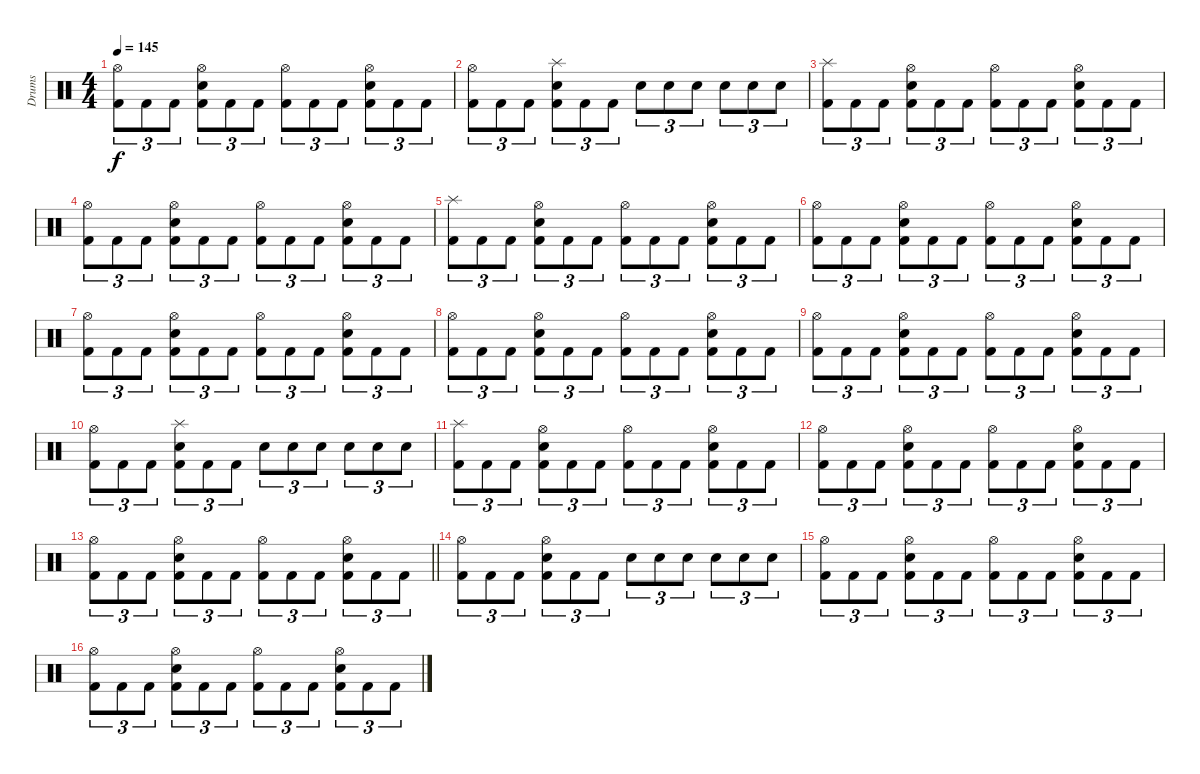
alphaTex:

\track ("Drums" "Drums") {instrument percussion}
\staff {score}
\articulation defaults
\ts (4 4)
\tempo 145
\clef neutral
\ks c
("Hi-Hat (open)" "Kick (hit) 2").8{tu (3 2) dy f} "Kick (hit) 2".8{tu (3 2)} "Kick (hit) 2".8{tu (3 2)} ("Hi-Hat (open)" "Electric Snare (hit)" "Kick (hit) 2").8{tu (3 2)} "Kick (hit) 2".8{tu (3 2)} "Kick (hit) 2".8{tu (3 2)} ("Hi-Hat (open)" "Kick (hit) 2").8{tu (3 2)} "Kick (hit) 2".8{tu (3 2)} "Kick (hit) 2".8{tu (3 2)} ("Hi-Hat (open)" "Electric Snare (hit)" "Kick (hit) 2").8{tu (3 2)} "Kick (hit) 2".8{tu (3 2)} "Kick (hit) 2".8{tu (3 2)} |
("Hi-Hat (open)" "Kick (hit) 2").8{tu (3 2)} "Kick (hit) 2".8{tu (3 2)} "Kick (hit) 2".8{tu (3 2)} ("Splash (hit)" "Electric Snare (hit)" "Kick (hit) 2").8{tu (3 2)} "Kick (hit) 2".8{tu (3 2)} "Kick (hit) 2".8{tu (3 2)} "Electric Snare (hit)".8{tu (3 2)} "Electric Snare (hit)".8{tu (3 2)} "Electric Snare (hit)".8{tu (3 2)} "Electric Snare (hit)".8{tu (3 2)} "Electric Snare (hit)".8{tu (3 2)} "Electric Snare (hit)".8{tu (3 2)} |
("Splash (hit)" "Kick (hit) 2").8{tu (3 2)} "Kick (hit) 2".8{tu (3 2)} "Kick (hit) 2".8{tu (3 2)} ("Hi-Hat (open)" "Electric Snare (hit)" "Kick (hit) 2").8{tu (3 2)} "Kick (hit) 2".8{tu (3 2)} "Kick (hit) 2".8{tu (3 2)} ("Hi-Hat (open)" "Kick (hit) 2").8{tu (3 2)} "Kick (hit) 2".8{tu (3 2)} "Kick (hit) 2".8{tu (3 2)} ("Hi-Hat (open)" "Electric Snare (hit)" "Kick (hit) 2").8{tu (3 2)} "Kick (hit) 2".8{tu (3 2)} "Kick (hit) 2".8{tu (3 2)} |
("Hi-Hat (open)" "Kick (hit) 2").8{tu (3 2)} "Kick (hit) 2".8{tu (3 2)} "Kick (hit) 2".8{tu (3 2)} ("Hi-Hat (open)" "Electric Snare (hit)" "Kick (hit) 2").8{tu (3 2)} "Kick (hit) 2".8{tu (3 2)} "Kick (hit) 2".8{tu (3 2)} ("Hi-Hat (open)" "Kick (hit) 2").8{tu (3 2)} "Kick (hit) 2".8{tu (3 2)} "Kick (hit) 2".8{tu (3 2)} ("Hi-Hat (open)" "Electric Snare (hit)" "Kick (hit) 2").8{tu (3 2)} "Kick (hit) 2".8{tu (3 2)} "Kick (hit) 2".8{tu (3 2)} |
("Splash (hit)" "Kick (hit) 2").8{tu (3 2)} "Kick (hit) 2".8{tu (3 2)} "Kick (hit) 2".8{tu (3 2)} ("Hi-Hat (open)" "Electric Snare (hit)" "Kick (hit) 2").8{tu (3 2)} "Kick (hit) 2".8{tu (3 2)} "Kick (hit) 2".8{tu (3 2)} ("Hi-Hat (open)" "Kick (hit) 2").8{tu (3 2)} "Kick (hit) 2".8{tu (3 2)} "Kick (hit) 2".8{tu (3 2)} ("Hi-Hat (open)" "Electric Snare (hit)" "Kick (hit) 2").8{tu (3 2)} "Kick (hit) 2".8{tu (3 2)} "Kick (hit) 2".8{tu (3 2)} |
("Hi-Hat (open)" "Kick (hit) 2").8{tu (3 2)} "Kick (hit) 2".8{tu (3 2)} "Kick (hit) 2".8{tu (3 2)} ("Hi-Hat (open)" "Electric Snare (hit)" "Kick (hit) 2").8{tu (3 2)} "Kick (hit) 2".8{tu (3 2)} "Kick (hit) 2".8{tu (3 2)} ("Hi-Hat (open)" "Kick (hit) 2").8{tu (3 2)} "Kick (hit) 2".8{tu (3 2)} "Kick (hit) 2".8{tu (3 2)} ("Hi-Hat (open)" "Electric Snare (hit)" "Kick (hit) 2").8{tu (3 2)} "Kick (hit) 2".8{tu (3 2)} "Kick (hit) 2".8{tu (3 2)} |
("Hi-Hat (open)" "Kick (hit) 2").8{tu (3 2)} "Kick (hit) 2".8{tu (3 2)} "Kick (hit) 2".8{tu (3 2)} ("Hi-Hat (open)" "Electric Snare (hit)" "Kick (hit) 2").8{tu (3 2)} "Kick (hit) 2".8{tu (3 2)} "Kick (hit) 2".8{tu (3 2)} ("Hi-Hat (open)" "Kick (hit) 2").8{tu (3 2)} "Kick (hit) 2".8{tu (3 2)} "Kick (hit) 2".8{tu (3 2)} ("Hi-Hat (open)" "Electric Snare (hit)" "Kick (hit) 2").8{tu (3 2)} "Kick (hit) 2".8{tu (3 2)} "Kick (hit) 2".8{tu (3 2)} |
("Hi-Hat (open)" "Kick (hit) 2").8{tu (3 2)} "Kick (hit) 2".8{tu (3 2)} "Kick (hit) 2".8{tu (3 2)} ("Hi-Hat (open)" "Electric Snare (hit)" "Kick (hit) 2").8{tu (3 2)} "Kick (hit) 2".8{tu (3 2)} "Kick (hit) 2".8{tu (3 2)} ("Hi-Hat (open)" "Kick (hit) 2").8{tu (3 2)} "Kick (hit) 2".8{tu (3 2)} "Kick (hit) 2".8{tu (3 2)} ("Hi-Hat (open)" "Electric Snare (hit)" "Kick (hit) 2").8{tu (3 2)} "Kick (hit) 2".8{tu (3 2)} "Kick (hit) 2".8{tu (3 2)} |
("Hi-Hat (open)" "Kick (hit) 2").8{tu (3 2)} "Kick (hit) 2".8{tu (3 2)} "Kick (hit) 2".8{tu (3 2)} ("Hi-Hat (open)" "Electric Snare (hit)" "Kick (hit) 2").8{tu (3 2)} "Kick (hit) 2".8{tu (3 2)} "Kick (hit) 2".8{tu (3 2)} ("Hi-Hat (open)" "Kick (hit) 2").8{tu (3 2)} "Kick (hit) 2".8{tu (3 2)} "Kick (hit) 2".8{tu (3 2)} ("Hi-Hat (open)" "Electric Snare (hit)" "Kick (hit) 2").8{tu (3 2)} "Kick (hit) 2".8{tu (3 2)} "Kick (hit) 2".8{tu (3 2)} |
("Hi-Hat (open)" "Kick (hit) 2").8{tu (3 2)} "Kick (hit) 2".8{tu (3 2)} "Kick (hit) 2".8{tu (3 2)} ("Splash (hit)" "Electric Snare (hit)" "Kick (hit) 2").8{tu (3 2)} "Kick (hit) 2".8{tu (3 2)} "Kick (hit) 2".8{tu (3 2)} "Electric Snare (hit)".8{tu (3 2)} "Electric Snare (hit)".8{tu (3 2)} "Electric Snare (hit)".8{tu (3 2)} "Electric Snare (hit)".8{tu (3 2)} "Electric Snare (hit)".8{tu (3 2)} "Electric Snare (hit)".8{tu (3 2)} |
("Splash (hit)" "Kick (hit) 2").8{tu (3 2)} "Kick (hit) 2".8{tu (3 2)} "Kick (hit) 2".8{tu (3 2)} ("Hi-Hat (open)" "Electric Snare (hit)" "Kick (hit) 2").8{tu (3 2)} "Kick (hit) 2".8{tu (3 2)} "Kick (hit) 2".8{tu (3 2)} ("Hi-Hat (open)" "Kick (hit) 2").8{tu (3 2)} "Kick (hit) 2".8{tu (3 2)} "Kick (hit) 2".8{tu (3 2)} ("Hi-Hat (open)" "Electric Snare (hit)" "Kick (hit) 2").8{tu (3 2)} "Kick (hit) 2".8{tu (3 2)} "Kick (hit) 2".8{tu (3 2)} |
("Hi-Hat (open)" "Kick (hit) 2").8{tu (3 2)} "Kick (hit) 2".8{tu (3 2)} "Kick (hit) 2".8{tu (3 2)} ("Hi-Hat (open)" "Electric Snare (hit)" "Kick (hit) 2").8{tu (3 2)} "Kick (hit) 2".8{tu (3 2)} "Kick (hit) 2".8{tu (3 2)} ("Hi-Hat (open)" "Kick (hit) 2").8{tu (3 2)} "Kick (hit) 2".8{tu (3 2)} "Kick (hit) 2".8{tu (3 2)} ("Hi-Hat (open)" "Electric Snare (hit)" "Kick (hit) 2").8{tu (3 2)} "Kick (hit) 2".8{tu (3 2)} "Kick (hit) 2".8{tu (3 2)} |
\barLineRight lightlight
("Hi-Hat (open)" "Kick (hit) 2").8{tu (3 2)} "Kick (hit) 2".8{tu (3 2)} "Kick (hit) 2".8{tu (3 2)} ("Hi-Hat (open)" "Electric Snare (hit)" "Kick (hit) 2").8{tu (3 2)} "Kick (hit) 2".8{tu (3 2)} "Kick (hit) 2".8{tu (3 2)} ("Hi-Hat (open)" "Kick (hit) 2").8{tu (3 2)} "Kick (hit) 2".8{tu (3 2)} "Kick (hit) 2".8{tu (3 2)} ("Hi-Hat (open)" "Electric Snare (hit)" "Kick (hit) 2").8{tu (3 2)} "Kick (hit) 2".8{tu (3 2)} "Kick (hit) 2".8{tu (3 2)} |
("Hi-Hat (open)" "Kick (hit) 2").8{tu (3 2)} "Kick (hit) 2".8{tu (3 2)} "Kick (hit) 2".8{tu (3 2)} ("Hi-Hat (open)" "Electric Snare (hit)" "Kick (hit) 2").8{tu (3 2)} "Kick (hit) 2".8{tu (3 2)} "Kick (hit) 2".8{tu (3 2)} "Electric Snare (hit)".8{tu (3 2)} "Electric Snare (hit)".8{tu (3 2)} "Electric Snare (hit)".8{tu (3 2)} "Electric Snare (hit)".8{tu (3 2)} "Electric Snare (hit)".8{tu (3 2)} "Electric Snare (hit)".8{tu (3 2)} |
("Hi-Hat (open)" "Kick (hit) 2").8{tu (3 2)} "Kick (hit) 2".8{tu (3 2)} "Kick (hit) 2".8{tu (3 2)} ("Hi-Hat (open)" "Electric Snare (hit)" "Kick (hit) 2").8{tu (3 2)} "Kick (hit) 2".8{tu (3 2)} "Kick (hit) 2".8{tu (3 2)} ("Hi-Hat (open)" "Kick (hit) 2").8{tu (3 2)} "Kick (hit) 2".8{tu (3 2)} "Kick (hit) 2".8{tu (3 2)} ("Hi-Hat (open)" "Electric Snare (hit)" "Kick (hit) 2").8{tu (3 2)} "Kick (hit) 2".8{tu (3 2)} "Kick (hit) 2".8{tu (3 2)} |
("Hi-Hat (open)" "Kick (hit) 2").8{tu (3 2)} "Kick (hit) 2".8{tu (3 2)} "Kick (hit) 2".8{tu (3 2)} ("Hi-Hat (open)" "Electric Snare (hit)" "Kick (hit) 2").8{tu (3 2)} "Kick (hit) 2".8{tu (3 2)} "Kick (hit) 2".8{tu (3 2)} ("Hi-Hat (open)" "Kick (hit) 2").8{tu (3 2)} "Kick (hit) 2".8{tu (3 2)} "Kick (hit) 2".8{tu (3 2)} ("Hi-Hat (open)" "Electric Snare (hit)" "Kick (hit) 2").8{tu (3 2)} "Kick (hit) 2".8{tu (3 2)} "Kick (hit) 2".8{tu (3 2)}
